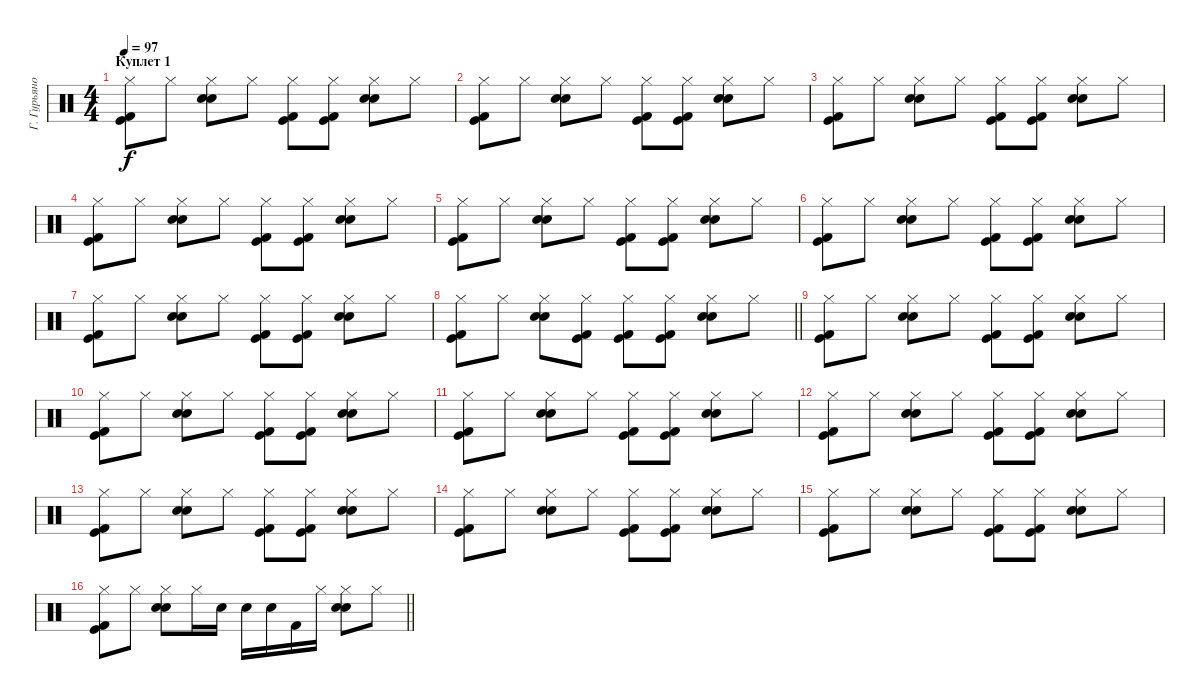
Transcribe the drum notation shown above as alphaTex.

\track ("Г. Гурьянов" "Г. Гурьяно") {instrument percussion}
\staff {score}
\articulation defaults
\ts (4 4)
\section ("" "Куплет 1")
\tempo 97
\clef neutral
\ks c
("Kick (hit) 2" "Kick (hit)" "Hi-Hat (closed)").8{dy f} "Hi-Hat (closed)".8 ("Electric Snare (hit)" "Snare (hit) 2" "Hi-Hat (closed)").8 "Hi-Hat (closed)".8 ("Kick (hit) 2" "Kick (hit)" "Hi-Hat (closed)").8 ("Kick (hit) 2" "Kick (hit)" "Hi-Hat (closed)").8 ("Electric Snare (hit)" "Snare (hit) 2" "Hi-Hat (closed)").8 "Hi-Hat (closed)".8 |
("Kick (hit) 2" "Kick (hit)" "Hi-Hat (closed)").8 "Hi-Hat (closed)".8 ("Electric Snare (hit)" "Snare (hit) 2" "Hi-Hat (closed)").8 "Hi-Hat (closed)".8 ("Kick (hit) 2" "Kick (hit)" "Hi-Hat (closed)").8 ("Kick (hit) 2" "Kick (hit)" "Hi-Hat (closed)").8 ("Electric Snare (hit)" "Snare (hit) 2" "Hi-Hat (closed)").8 "Hi-Hat (closed)".8 |
("Kick (hit) 2" "Kick (hit)" "Hi-Hat (closed)").8 "Hi-Hat (closed)".8 ("Electric Snare (hit)" "Snare (hit) 2" "Hi-Hat (closed)").8 "Hi-Hat (closed)".8 ("Kick (hit) 2" "Kick (hit)" "Hi-Hat (closed)").8 ("Kick (hit) 2" "Kick (hit)" "Hi-Hat (closed)").8 ("Electric Snare (hit)" "Snare (hit) 2" "Hi-Hat (closed)").8 "Hi-Hat (closed)".8 |
("Kick (hit) 2" "Kick (hit)" "Hi-Hat (closed)").8 "Hi-Hat (closed)".8 ("Electric Snare (hit)" "Snare (hit) 2" "Hi-Hat (closed)").8 "Hi-Hat (closed)".8 ("Kick (hit) 2" "Kick (hit)" "Hi-Hat (closed)").8 ("Kick (hit) 2" "Kick (hit)" "Hi-Hat (closed)").8 ("Electric Snare (hit)" "Snare (hit) 2" "Hi-Hat (closed)").8 "Hi-Hat (closed)".8 |
("Kick (hit) 2" "Kick (hit)" "Hi-Hat (closed)").8 "Hi-Hat (closed)".8 ("Electric Snare (hit)" "Snare (hit) 2" "Hi-Hat (closed)").8 "Hi-Hat (closed)".8 ("Kick (hit) 2" "Kick (hit)" "Hi-Hat (closed)").8 ("Kick (hit) 2" "Kick (hit)" "Hi-Hat (closed)").8 ("Electric Snare (hit)" "Snare (hit) 2" "Hi-Hat (closed)").8 "Hi-Hat (closed)".8 |
("Kick (hit) 2" "Kick (hit)" "Hi-Hat (closed)").8 "Hi-Hat (closed)".8 ("Electric Snare (hit)" "Snare (hit) 2" "Hi-Hat (closed)").8 "Hi-Hat (closed)".8 ("Kick (hit) 2" "Kick (hit)" "Hi-Hat (closed)").8 ("Kick (hit) 2" "Kick (hit)" "Hi-Hat (closed)").8 ("Electric Snare (hit)" "Snare (hit) 2" "Hi-Hat (closed)").8 "Hi-Hat (closed)".8 |
("Kick (hit) 2" "Kick (hit)" "Hi-Hat (closed)").8 "Hi-Hat (closed)".8 ("Electric Snare (hit)" "Snare (hit) 2" "Hi-Hat (closed)").8 "Hi-Hat (closed)".8 ("Kick (hit) 2" "Kick (hit)" "Hi-Hat (closed)").8 ("Kick (hit) 2" "Kick (hit)" "Hi-Hat (closed)").8 ("Electric Snare (hit)" "Snare (hit) 2" "Hi-Hat (closed)").8 "Hi-Hat (closed)".8 |
\barLineRight lightlight
("Kick (hit) 2" "Kick (hit)" "Hi-Hat (closed)").8 "Hi-Hat (closed)".8 ("Electric Snare (hit)" "Snare (hit) 2" "Hi-Hat (closed)").8 ("Kick (hit) 2" "Kick (hit)" "Hi-Hat (closed)").8 ("Kick (hit) 2" "Kick (hit)" "Hi-Hat (closed)").8 ("Kick (hit) 2" "Kick (hit)" "Hi-Hat (closed)").8 ("Electric Snare (hit)" "Snare (hit) 2" "Hi-Hat (closed)").8 "Hi-Hat (closed)".8 |
("Kick (hit) 2" "Kick (hit)" "Hi-Hat (closed)").8 "Hi-Hat (closed)".8 ("Electric Snare (hit)" "Snare (hit) 2" "Hi-Hat (closed)").8 "Hi-Hat (closed)".8 ("Kick (hit) 2" "Kick (hit)" "Hi-Hat (closed)").8 ("Kick (hit) 2" "Kick (hit)" "Hi-Hat (closed)").8 ("Electric Snare (hit)" "Snare (hit) 2" "Hi-Hat (closed)").8 "Hi-Hat (closed)".8 |
("Kick (hit) 2" "Kick (hit)" "Hi-Hat (closed)").8 "Hi-Hat (closed)".8 ("Electric Snare (hit)" "Snare (hit) 2" "Hi-Hat (closed)").8 "Hi-Hat (closed)".8 ("Kick (hit) 2" "Kick (hit)" "Hi-Hat (closed)").8 ("Kick (hit) 2" "Kick (hit)" "Hi-Hat (closed)").8 ("Electric Snare (hit)" "Snare (hit) 2" "Hi-Hat (closed)").8 "Hi-Hat (closed)".8 |
("Kick (hit) 2" "Kick (hit)" "Hi-Hat (closed)").8 "Hi-Hat (closed)".8 ("Electric Snare (hit)" "Snare (hit) 2" "Hi-Hat (closed)").8 "Hi-Hat (closed)".8 ("Kick (hit) 2" "Kick (hit)" "Hi-Hat (closed)").8 ("Kick (hit) 2" "Kick (hit)" "Hi-Hat (closed)").8 ("Electric Snare (hit)" "Snare (hit) 2" "Hi-Hat (closed)").8 "Hi-Hat (closed)".8 |
("Kick (hit) 2" "Kick (hit)" "Hi-Hat (closed)").8 "Hi-Hat (closed)".8 ("Electric Snare (hit)" "Snare (hit) 2" "Hi-Hat (closed)").8 "Hi-Hat (closed)".8 ("Kick (hit) 2" "Kick (hit)" "Hi-Hat (closed)").8 ("Kick (hit) 2" "Kick (hit)" "Hi-Hat (closed)").8 ("Electric Snare (hit)" "Snare (hit) 2" "Hi-Hat (closed)").8 "Hi-Hat (closed)".8 |
("Kick (hit) 2" "Kick (hit)" "Hi-Hat (closed)").8 "Hi-Hat (closed)".8 ("Electric Snare (hit)" "Snare (hit) 2" "Hi-Hat (closed)").8 "Hi-Hat (closed)".8 ("Kick (hit) 2" "Kick (hit)" "Hi-Hat (closed)").8 ("Kick (hit) 2" "Kick (hit)" "Hi-Hat (closed)").8 ("Electric Snare (hit)" "Snare (hit) 2" "Hi-Hat (closed)").8 "Hi-Hat (closed)".8 |
("Kick (hit) 2" "Kick (hit)" "Hi-Hat (closed)").8 "Hi-Hat (closed)".8 ("Electric Snare (hit)" "Snare (hit) 2" "Hi-Hat (closed)").8 "Hi-Hat (closed)".8 ("Kick (hit) 2" "Kick (hit)" "Hi-Hat (closed)").8 ("Kick (hit) 2" "Kick (hit)" "Hi-Hat (closed)").8 ("Electric Snare (hit)" "Snare (hit) 2" "Hi-Hat (closed)").8 "Hi-Hat (closed)".8 |
("Kick (hit) 2" "Kick (hit)" "Hi-Hat (closed)").8 "Hi-Hat (closed)".8 ("Electric Snare (hit)" "Snare (hit) 2" "Hi-Hat (closed)").8 "Hi-Hat (closed)".8 ("Kick (hit) 2" "Kick (hit)" "Hi-Hat (closed)").8 ("Kick (hit) 2" "Kick (hit)" "Hi-Hat (closed)").8 ("Electric Snare (hit)" "Snare (hit) 2" "Hi-Hat (closed)").8 "Hi-Hat (closed)".8 |
\barLineRight lightlight
("Kick (hit) 2" "Kick (hit)" "Hi-Hat (closed)").8 "Hi-Hat (closed)".8 ("Electric Snare (hit)" "Snare (hit) 2" "Hi-Hat (closed)").8 "Hi-Hat (closed)".16 "Electric Snare (hit)".16 "Electric Snare (hit)".16 "Electric Snare (hit)".16 "Kick (hit) 2".16 "Hi-Hat (closed)".16 ("Electric Snare (hit)" "Snare (hit) 2" "Hi-Hat (closed)").8 "Hi-Hat (closed)".8
